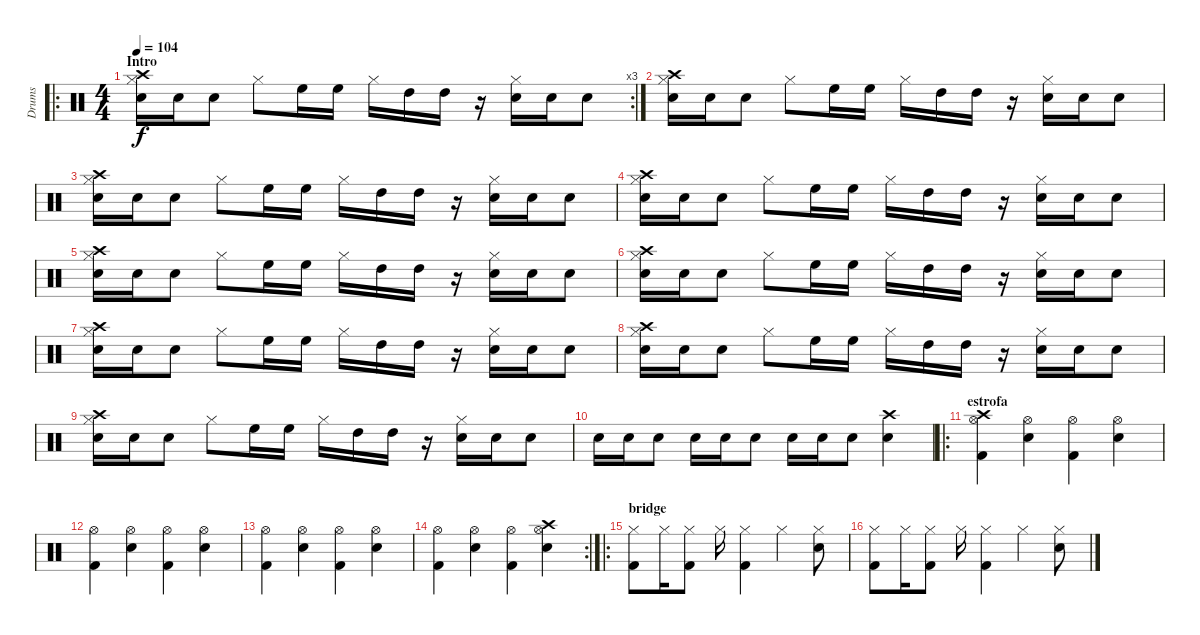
\track ("Drums" "Drums") {instrument percussion}
\staff {score}
\articulation defaults
\ro
\rc 3
\ts (4 4)
\section ("" "Intro")
\tempo 104
\clef neutral
\ks c
("Snare (hit) 2" "Hi-Hat (closed)" "Crash high (hit)").16{dy f} "Snare (hit) 2".16 "Snare (hit) 2".8 "Hi-Hat (closed)".8 "High Floor Tom (hit)".16 "High Floor Tom (hit)".16 "Hi-Hat (closed)".16 "High Tom (hit)".16 "High Tom (hit)".16 r.16 ("Snare (hit) 2" "Hi-Hat (closed)").16 "Snare (hit) 2".16 "Snare (hit) 2".8 |
("Snare (hit) 2" "Hi-Hat (closed)" "Crash high (hit)").16 "Snare (hit) 2".16 "Snare (hit) 2".8 "Hi-Hat (closed)".8 "High Floor Tom (hit)".16 "High Floor Tom (hit)".16 "Hi-Hat (closed)".16 "High Tom (hit)".16 "High Tom (hit)".16 r.16 ("Snare (hit) 2" "Hi-Hat (closed)").16 "Snare (hit) 2".16 "Snare (hit) 2".8 |
("Snare (hit) 2" "Hi-Hat (closed)" "Crash high (hit)").16 "Snare (hit) 2".16 "Snare (hit) 2".8 "Hi-Hat (closed)".8 "High Floor Tom (hit)".16 "High Floor Tom (hit)".16 "Hi-Hat (closed)".16 "High Tom (hit)".16 "High Tom (hit)".16 r.16 ("Snare (hit) 2" "Hi-Hat (closed)").16 "Snare (hit) 2".16 "Snare (hit) 2".8 |
("Snare (hit) 2" "Hi-Hat (closed)" "Crash high (hit)").16 "Snare (hit) 2".16 "Snare (hit) 2".8 "Hi-Hat (closed)".8 "High Floor Tom (hit)".16 "High Floor Tom (hit)".16 "Hi-Hat (closed)".16 "High Tom (hit)".16 "High Tom (hit)".16 r.16 ("Snare (hit) 2" "Hi-Hat (closed)").16 "Snare (hit) 2".16 "Snare (hit) 2".8 |
("Snare (hit) 2" "Hi-Hat (closed)" "Crash high (hit)").16 "Snare (hit) 2".16 "Snare (hit) 2".8 "Hi-Hat (closed)".8 "High Floor Tom (hit)".16 "High Floor Tom (hit)".16 "Hi-Hat (closed)".16 "High Tom (hit)".16 "High Tom (hit)".16 r.16 ("Snare (hit) 2" "Hi-Hat (closed)").16 "Snare (hit) 2".16 "Snare (hit) 2".8 |
("Snare (hit) 2" "Hi-Hat (closed)" "Crash high (hit)").16 "Snare (hit) 2".16 "Snare (hit) 2".8 "Hi-Hat (closed)".8 "High Floor Tom (hit)".16 "High Floor Tom (hit)".16 "Hi-Hat (closed)".16 "High Tom (hit)".16 "High Tom (hit)".16 r.16 ("Snare (hit) 2" "Hi-Hat (closed)").16 "Snare (hit) 2".16 "Snare (hit) 2".8 |
("Snare (hit) 2" "Hi-Hat (closed)" "Crash high (hit)").16 "Snare (hit) 2".16 "Snare (hit) 2".8 "Hi-Hat (closed)".8 "High Floor Tom (hit)".16 "High Floor Tom (hit)".16 "Hi-Hat (closed)".16 "High Tom (hit)".16 "High Tom (hit)".16 r.16 ("Snare (hit) 2" "Hi-Hat (closed)").16 "Snare (hit) 2".16 "Snare (hit) 2".8 |
("Snare (hit) 2" "Hi-Hat (closed)" "Crash high (hit)").16 "Snare (hit) 2".16 "Snare (hit) 2".8 "Hi-Hat (closed)".8 "High Floor Tom (hit)".16 "High Floor Tom (hit)".16 "Hi-Hat (closed)".16 "High Tom (hit)".16 "High Tom (hit)".16 r.16 ("Snare (hit) 2" "Hi-Hat (closed)").16 "Snare (hit) 2".16 "Snare (hit) 2".8 |
("Snare (hit) 2" "Hi-Hat (closed)" "Crash high (hit)").16 "Snare (hit) 2".16 "Snare (hit) 2".8 "Hi-Hat (closed)".8 "High Floor Tom (hit)".16 "High Floor Tom (hit)".16 "Hi-Hat (closed)".16 "High Tom (hit)".16 "High Tom (hit)".16 r.16 ("Snare (hit) 2" "Hi-Hat (closed)").16 "Snare (hit) 2".16 "Snare (hit) 2".8 |
"Snare (hit) 2".16 "Snare (hit) 2".16 "Snare (hit) 2".8 "Snare (hit) 2".16 "Snare (hit) 2".16 "Snare (hit) 2".8 "Snare (hit) 2".16 "Snare (hit) 2".16 "Snare (hit) 2".8 ("Snare (hit) 2" "Crash high (hit)").4 |
\ro
\section ("" "estrofa")
("Kick (hit) 2" "Hi-Hat (open)" "Crash high (hit)").4 ("Snare (hit) 2" "Hi-Hat (open)").4 ("Kick (hit) 2" "Hi-Hat (open)").4 ("Snare (hit) 2" "Hi-Hat (open)").4 |
("Kick (hit) 2" "Hi-Hat (open)").4 ("Snare (hit) 2" "Hi-Hat (open)").4 ("Kick (hit) 2" "Hi-Hat (open)").4 ("Snare (hit) 2" "Hi-Hat (open)").4 |
("Kick (hit) 2" "Hi-Hat (open)").4 ("Snare (hit) 2" "Hi-Hat (open)").4 ("Kick (hit) 2" "Hi-Hat (open)").4 ("Snare (hit) 2" "Hi-Hat (open)").4 |
\rc 2
("Kick (hit) 2" "Hi-Hat (open)").4 ("Snare (hit) 2" "Hi-Hat (open)").4 ("Kick (hit) 2" "Hi-Hat (open)").4 ("Snare (hit) 2" "Hi-Hat (open)" "Crash high (hit)").4 |
\ro
\section ("" "bridge")
("Kick (hit) 2" "Hi-Hat (closed)").8 "Hi-Hat (closed)".16 ("Kick (hit) 2" "Hi-Hat (closed)").8 "Hi-Hat (closed)".16 ("Kick (hit) 2" "Hi-Hat (closed)").4 "Hi-Hat (closed)".4 ("Snare (hit) 2" "Hi-Hat (closed)").8 |
("Kick (hit) 2" "Hi-Hat (closed)").8 "Hi-Hat (closed)".16 ("Kick (hit) 2" "Hi-Hat (closed)").8 "Hi-Hat (closed)".16 ("Kick (hit) 2" "Hi-Hat (closed)").4 "Hi-Hat (closed)".4 ("Snare (hit) 2" "Hi-Hat (closed)").8
